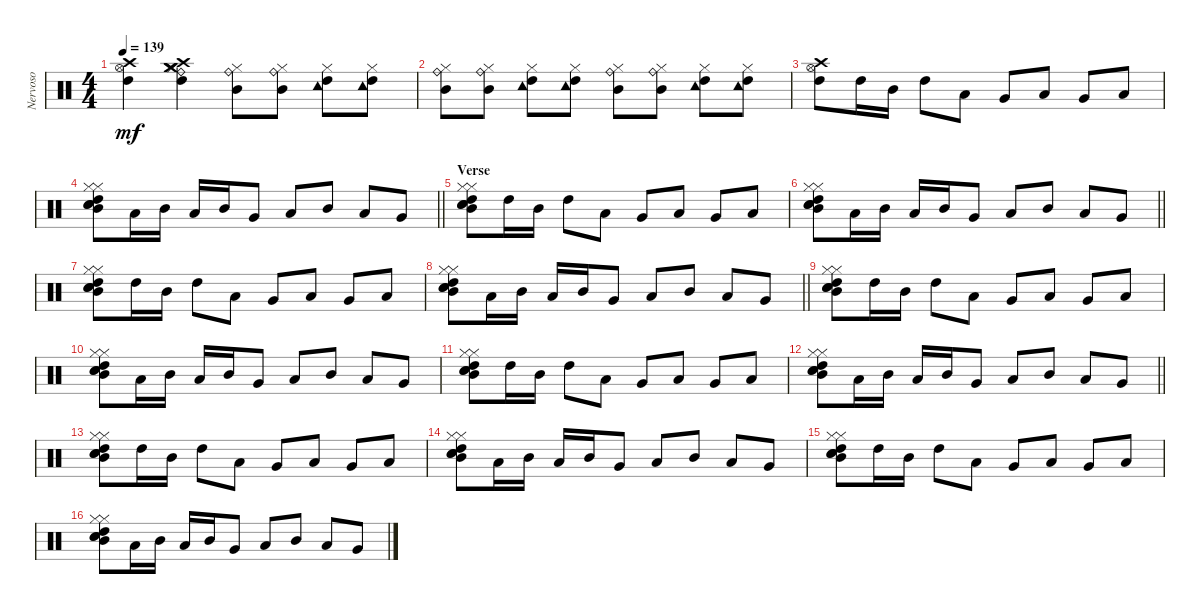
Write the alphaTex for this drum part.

\track ("Nervoso" "Nervoso") {instrument percussion}
\staff {score}
\articulation defaults
\ts (4 4)
\tempo 139
\clef neutral
\ks c
("Hi-Hat (open)" "Crash high (hit)" "High Tom (hit)").4{dy mf} ("High Tom (hit)" "Crash high (hit)" "Crash medium (hit)" "Hi-Hat (closed)" "Ride (bell)" "Crash medium (hit)").4 ("Ride (bell)" "Mid Tom (hit)" "Hi-Hat (closed)").8 ("Ride (bell)" "Mid Tom (hit)" "Hi-Hat (closed)").8 ("High Tom (hit)" "Hi-Hat (closed)" "Tambourine (hit)").8 ("High Tom (hit)" "Hi-Hat (closed)" "Tambourine (hit)").8 |
("Ride (bell)" "Mid Tom (hit)" "Hi-Hat (closed)").8 ("Ride (bell)" "Mid Tom (hit)" "Hi-Hat (closed)").8 ("High Tom (hit)" "Hi-Hat (closed)" "Tambourine (hit)").8 ("High Tom (hit)" "Hi-Hat (closed)" "Tambourine (hit)").8 ("Ride (bell)" "Mid Tom (hit)" "Hi-Hat (closed)").8 ("Ride (bell)" "Mid Tom (hit)" "Hi-Hat (closed)").8 ("High Tom (hit)" "Hi-Hat (closed)" "Tambourine (hit)").8 ("High Tom (hit)" "Hi-Hat (closed)" "Tambourine (hit)").8 |
("Hi-Hat (open)" "Crash high (hit)" "High Tom (hit)").8 "High Tom (hit)".16 "Mid Tom (hit)".16 "High Tom (hit)".8 "Low Tom (hit)".8 "Very Low Tom (hit)".8 "Low Tom (hit)".8 "Very Low Tom (hit)".8 "Low Tom (hit)".8 |
\barLineRight lightlight
("High Tom (hit)" "Electric Snare (hit)" "Hi-Hat (closed)" "Hi-Hat (closed)" "Electric Snare (hit)" "Mid Tom (hit)").8 "Low Tom (hit)".16 "Mid Tom (hit)".16 "Low Tom (hit)".16 "Mid Tom (hit)".16 "Very Low Tom (hit)".8 "Low Tom (hit)".8 "Mid Tom (hit)".8 "Low Tom (hit)".8 "Very Low Tom (hit)".8 |
\section ("" "Verse")
("High Tom (hit)" "Electric Snare (hit)" "Hi-Hat (closed)" "Hi-Hat (closed)" "Electric Snare (hit)" "Mid Tom (hit)").8 "High Tom (hit)".16 "Mid Tom (hit)".16 "High Tom (hit)".8 "Low Tom (hit)".8 "Very Low Tom (hit)".8 "Low Tom (hit)".8 "Very Low Tom (hit)".8 "Low Tom (hit)".8 |
\barLineRight lightlight
("High Tom (hit)" "Electric Snare (hit)" "Hi-Hat (closed)" "Hi-Hat (closed)" "Electric Snare (hit)" "Mid Tom (hit)").8 "Low Tom (hit)".16 "Mid Tom (hit)".16 "Low Tom (hit)".16 "Mid Tom (hit)".16 "Very Low Tom (hit)".8 "Low Tom (hit)".8 "Mid Tom (hit)".8 "Low Tom (hit)".8 "Very Low Tom (hit)".8 |
("High Tom (hit)" "Electric Snare (hit)" "Hi-Hat (closed)" "Hi-Hat (closed)" "Electric Snare (hit)" "Mid Tom (hit)").8 "High Tom (hit)".16 "Mid Tom (hit)".16 "High Tom (hit)".8 "Low Tom (hit)".8 "Very Low Tom (hit)".8 "Low Tom (hit)".8 "Very Low Tom (hit)".8 "Low Tom (hit)".8 |
\barLineRight lightlight
("High Tom (hit)" "Electric Snare (hit)" "Hi-Hat (closed)" "Hi-Hat (closed)" "Electric Snare (hit)" "Mid Tom (hit)").8 "Low Tom (hit)".16 "Mid Tom (hit)".16 "Low Tom (hit)".16 "Mid Tom (hit)".16 "Very Low Tom (hit)".8 "Low Tom (hit)".8 "Mid Tom (hit)".8 "Low Tom (hit)".8 "Very Low Tom (hit)".8 |
("High Tom (hit)" "Electric Snare (hit)" "Hi-Hat (closed)" "Hi-Hat (closed)" "Electric Snare (hit)" "Mid Tom (hit)").8 "High Tom (hit)".16 "Mid Tom (hit)".16 "High Tom (hit)".8 "Low Tom (hit)".8 "Very Low Tom (hit)".8 "Low Tom (hit)".8 "Very Low Tom (hit)".8 "Low Tom (hit)".8 |
("High Tom (hit)" "Electric Snare (hit)" "Hi-Hat (closed)" "Hi-Hat (closed)" "Electric Snare (hit)" "Mid Tom (hit)").8 "Low Tom (hit)".16 "Mid Tom (hit)".16 "Low Tom (hit)".16 "Mid Tom (hit)".16 "Very Low Tom (hit)".8 "Low Tom (hit)".8 "Mid Tom (hit)".8 "Low Tom (hit)".8 "Very Low Tom (hit)".8 |
("High Tom (hit)" "Electric Snare (hit)" "Hi-Hat (closed)" "Hi-Hat (closed)" "Electric Snare (hit)" "Mid Tom (hit)").8 "High Tom (hit)".16 "Mid Tom (hit)".16 "High Tom (hit)".8 "Low Tom (hit)".8 "Very Low Tom (hit)".8 "Low Tom (hit)".8 "Very Low Tom (hit)".8 "Low Tom (hit)".8 |
\barLineRight lightlight
("High Tom (hit)" "Electric Snare (hit)" "Hi-Hat (closed)" "Hi-Hat (closed)" "Electric Snare (hit)" "Mid Tom (hit)").8 "Low Tom (hit)".16 "Mid Tom (hit)".16 "Low Tom (hit)".16 "Mid Tom (hit)".16 "Very Low Tom (hit)".8 "Low Tom (hit)".8 "Mid Tom (hit)".8 "Low Tom (hit)".8 "Very Low Tom (hit)".8 |
("High Tom (hit)" "Electric Snare (hit)" "Hi-Hat (closed)" "Hi-Hat (closed)" "Electric Snare (hit)" "Mid Tom (hit)").8 "High Tom (hit)".16 "Mid Tom (hit)".16 "High Tom (hit)".8 "Low Tom (hit)".8 "Very Low Tom (hit)".8 "Low Tom (hit)".8 "Very Low Tom (hit)".8 "Low Tom (hit)".8 |
("High Tom (hit)" "Electric Snare (hit)" "Hi-Hat (closed)" "Hi-Hat (closed)" "Electric Snare (hit)" "Mid Tom (hit)").8 "Low Tom (hit)".16 "Mid Tom (hit)".16 "Low Tom (hit)".16 "Mid Tom (hit)".16 "Very Low Tom (hit)".8 "Low Tom (hit)".8 "Mid Tom (hit)".8 "Low Tom (hit)".8 "Very Low Tom (hit)".8 |
("High Tom (hit)" "Electric Snare (hit)" "Hi-Hat (closed)" "Hi-Hat (closed)" "Electric Snare (hit)" "Mid Tom (hit)").8 "High Tom (hit)".16 "Mid Tom (hit)".16 "High Tom (hit)".8 "Low Tom (hit)".8 "Very Low Tom (hit)".8 "Low Tom (hit)".8 "Very Low Tom (hit)".8 "Low Tom (hit)".8 |
("High Tom (hit)" "Electric Snare (hit)" "Hi-Hat (closed)" "Hi-Hat (closed)" "Electric Snare (hit)" "Mid Tom (hit)").8 "Low Tom (hit)".16 "Mid Tom (hit)".16 "Low Tom (hit)".16 "Mid Tom (hit)".16 "Very Low Tom (hit)".8 "Low Tom (hit)".8 "Mid Tom (hit)".8 "Low Tom (hit)".8 "Very Low Tom (hit)".8
